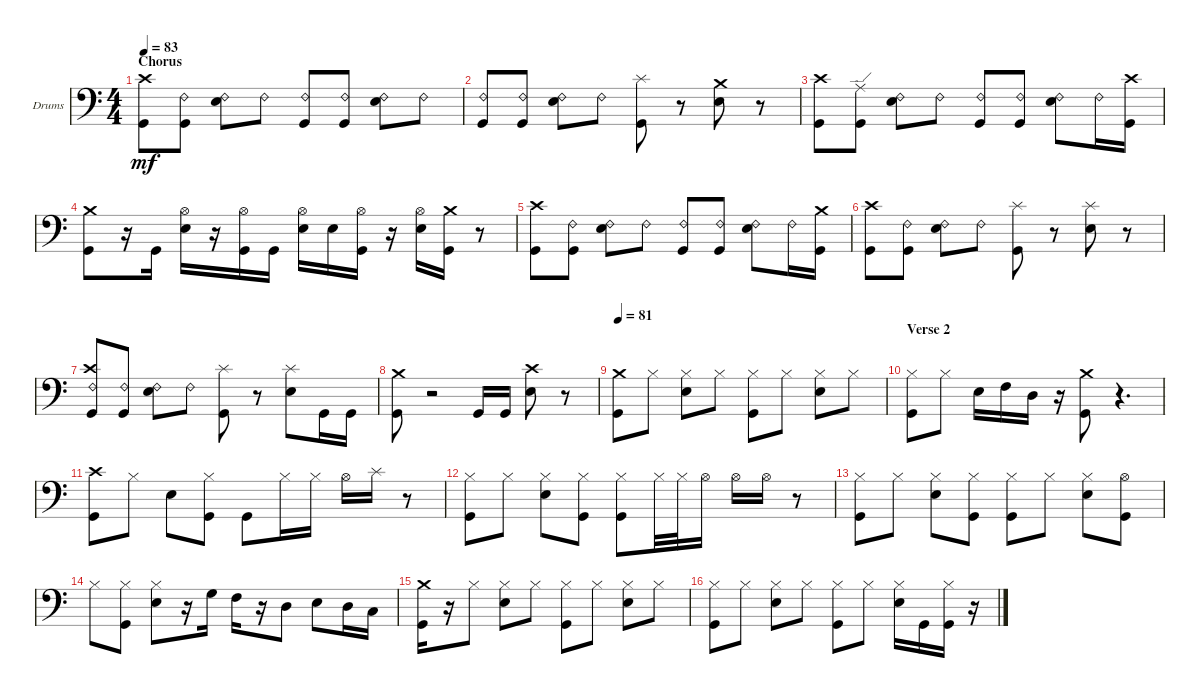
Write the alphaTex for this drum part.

\bracketExtendMode groupsimilarinstruments
\firstSystemTrackNameOrientation horizontal
\otherSystemsTrackNameOrientation horizontal
\track ("Drums" "Drums") {instrument percussion}
\staff {score}
\articulation defaults
\ts (4 4)
\section ("" "Chorus")
\tempo 83
\clef f4
\scale
0.333333
\ks c
("Kick (hit)" "Crash high (hit)").8{dy mf} ("Kick (hit)" "Ride (bell) 2").8 ("Ride (bell) 2" "Snare (hit) 2").8 "Ride (bell) 2".8 ("Ride (bell) 2" "Kick (hit)").8 ("Ride (bell) 2" "Kick (hit)").8 ("Ride (bell) 2" "Snare (hit) 2").8 "Ride (bell) 2".8 |
\scale
0.333333 ("Kick (hit)" "Ride (bell) 2").8 ("Ride (bell) 2" "Kick (hit)").8 ("Ride (bell) 2" "Snare (hit) 2").8 "Ride (bell) 2".8 ("Kick (hit)" "Splash (hit)").8 r.8 ("Snare (hit) 2" "Crash medium (hit)").8 r.8 |
\scale
0.333333 ("Kick (hit)" "Crash high (hit)").8 ("Kick (hit)" "Ride (edge)").8 ("Snare (hit) 2" "Ride (bell) 2").8 "Ride (bell) 2".8 ("Ride (bell) 2" "Kick (hit)").8 ("Ride (bell) 2" "Kick (hit)").8 ("Ride (bell) 2" "Snare (hit) 2").8 "Ride (bell) 2".16 ("Crash high (hit)" "Kick (hit)").16 |
\scale
0.333333 ("Kick (hit)" "Crash medium (hit)").8 r.16 "Kick (hit)".16 ("Snare (hit) 2" "Hi-Hat (open)").16 r.16 ("Kick (hit)" "Hi-Hat (open)").16 "Kick (hit)".16 ("Snare (hit) 2" "Hi-Hat (open)").16 "Snare (hit) 2".16 ("Kick (hit)" "Hi-Hat (open)").16 r.16 ("Snare (hit) 2" "Hi-Hat (open)").16 ("Kick (hit)" "Crash medium (hit)").16 r.8 |
\scale
0.333333 ("Kick (hit)" "Crash high (hit)").8 ("Kick (hit)" "Ride (bell) 2").8 ("Ride (bell) 2" "Snare (hit) 2").8 "Ride (bell) 2".8 ("Ride (bell) 2" "Kick (hit)").8 ("Ride (bell) 2" "Kick (hit)").8 ("Ride (bell) 2" "Snare (hit) 2").8 "Ride (bell) 2".16 ("Crash medium (hit)" "Kick (hit)").16 |
\scale
0.333333 ("Kick (hit)" "Crash high (hit)").8 ("Kick (hit)" "Ride (bell) 2").8 ("Ride (bell) 2" "Snare (hit) 2").8 "Ride (bell) 2".8 ("Splash (hit)" "Kick (hit)").8 r.8 ("Snare (hit) 2" "Splash (hit)").8 r.8 |
\scale
0.333333 ("Kick (hit)" "Crash high (hit)" "Ride (bell) 2").8 ("Kick (hit)" "Ride (bell) 2").8 ("Ride (bell) 2" "Snare (hit) 2").8 "Ride (bell) 2".8 ("Kick (hit)" "Splash (hit)").8 r.8 ("Snare (hit) 2" "Splash (hit)").8 "Kick (hit)".16 "Kick (hit)".16 |
\scale
0.333333 ("Kick (hit)" "Crash medium (hit)").8 r.2 "Kick (hit)".16 "Kick (hit)".16 ("Snare (hit) 2" "Crash high (hit)").8 r.8 |
\tempo 81
\scale
0.333333 ("Kick (hit)" "Crash medium (hit)").8 "Hi-Hat (closed)".8 ("Hi-Hat (closed)" "Snare (hit) 2").8 "Hi-Hat (closed)".8 ("Hi-Hat (closed)" "Kick (hit)").8 "Hi-Hat (closed)".8 ("Hi-Hat (closed)" "Snare (hit) 2").8 "Hi-Hat (closed)".8 |
\section ("" "Verse 2")
\scale
0.333333 ("Kick (hit)" "Hi-Hat (closed)").8 "Hi-Hat (closed)".8 "Snare (hit) 2".16 "High Tom (hit)".16 "Mid Tom (hit)".16 r.16 ("Kick (hit)" "Crash medium (hit)").8 r.4{d} |
\scale
0.333333 ("Kick (hit)" "Crash high (hit)").8 "Hi-Hat (closed)".8 "Snare (hit) 2".8 ("Hi-Hat (closed)" "Kick (hit)").8 "Kick (hit)".8 "Hi-Hat (closed)".16 "Hi-Hat (closed)".16 "Hi-Hat (open)".16 "Splash (hit)".16 r.8 |
\scale
0.333333 ("Kick (hit)" "Hi-Hat (closed)").8 "Hi-Hat (closed)".8 ("Hi-Hat (closed)" "Snare (hit) 2").8 ("Hi-Hat (closed)" "Kick (hit)").8 ("Kick (hit)" "Hi-Hat (closed)").8 "Hi-Hat (closed)".32 "Hi-Hat (closed)".32 "Hi-Hat (open)".16 "Hi-Hat (open)".16 "Hi-Hat (open)".16 r.8 |
\scale
0.333333 ("Kick (hit)" "Hi-Hat (closed)").8 "Hi-Hat (closed)".8 ("Hi-Hat (closed)" "Snare (hit) 2").8 ("Hi-Hat (closed)" "Kick (hit)").8 ("Hi-Hat (closed)" "Kick (hit)").8 "Hi-Hat (closed)".8 ("Hi-Hat (closed)" "Snare (hit) 2").8 ("Hi-Hat (open)" "Kick (hit)").8 |
\scale
0.333333 "Hi-Hat (closed)".8 ("Hi-Hat (closed)" "Kick (hit)").8 ("Hi-Hat (closed)" "Snare (hit) 2").8 r.16 "High Floor Tom (hit)".16 "High Tom (hit)".16 r.16 "Mid Tom (hit)".8 "Snare (hit) 2".8 "Mid Tom (hit)".16 "Low Tom (hit)".16 |
\scale
0.333333 ("Kick (hit)" "Crash medium (hit)").16 r.16 "Hi-Hat (closed)".8 ("Snare (hit) 2" "Hi-Hat (closed)").8 "Hi-Hat (closed)".8 ("Hi-Hat (closed)" "Kick (hit)").8 "Hi-Hat (closed)".8 ("Hi-Hat (closed)" "Snare (hit) 2").8 "Hi-Hat (closed)".8 |
\scale
0.333333 ("Hi-Hat (closed)" "Kick (hit)").8 "Hi-Hat (closed)".8 ("Hi-Hat (closed)" "Snare (hit) 2").8 "Hi-Hat (closed)".8 ("Hi-Hat (closed)" "Kick (hit)").8 "Hi-Hat (closed)".8 ("Hi-Hat (closed)" "Snare (hit) 2").16 "Kick (hit)".16 ("Kick (hit)" "Hi-Hat (closed)").16 r.16
